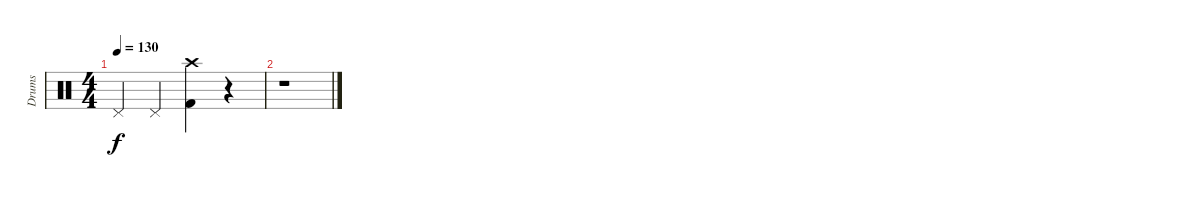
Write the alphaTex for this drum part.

\track ("Drums" "Drums") {instrument percussion}
\staff {score}
\articulation defaults
\ts (4 4)
\tempo 130
\clef neutral
\ks c "Pedal Hi-Hat (hit)".4{dy f} "Pedal Hi-Hat (hit)".4
("Crash high (hit)" "Kick (hit) 2").4 r.4 |
r.1
